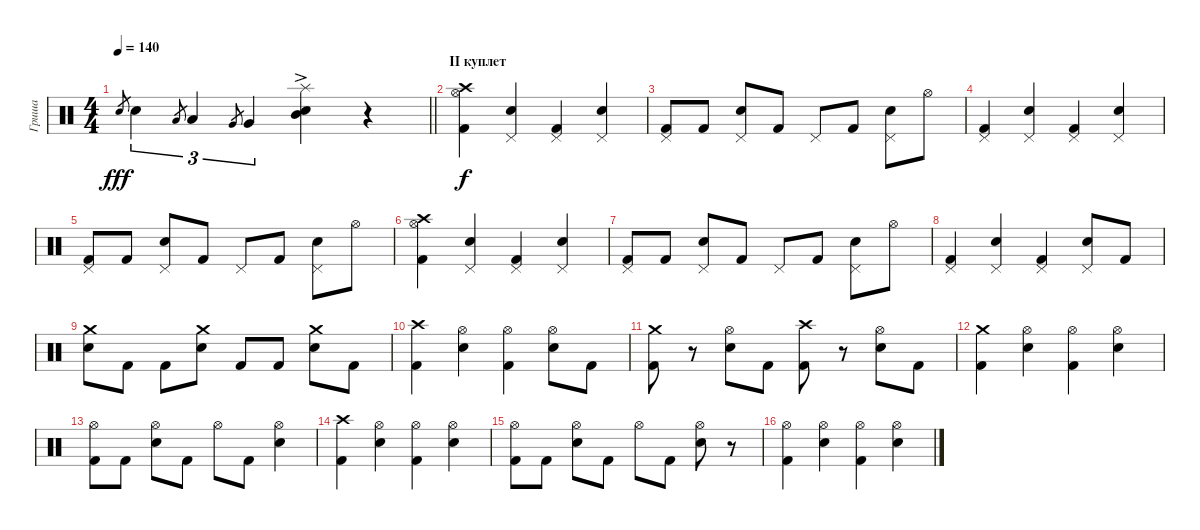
\track ("Гриша" "Гриша") {instrument percussion}
\staff {score}
\articulation defaults
\ts (4 4)
\tempo 140
\clef neutral
\barLineRight lightlight
\ks c "Electric Snare (hit)".8{gr dy fff} "Electric Snare (hit)".4{tu (3 2)} "Low Tom (hit)".8{gr} "Low Tom (hit)".4{tu (3 2)} "Very Low Tom (hit)".8{gr} "Very Low Tom (hit)".4{tu (3 2)}
("Electric Snare (hit)"{ac} "Splash (hit)" "Mid Tom (hit)").4 r.4 |
\section ("" "II куплет")
("Crash high (hit)" "Kick (hit) 2" "Hi-Hat (open)").4{dy f} ("Pedal Hi-Hat (hit)" "Electric Snare (hit)").4 ("Pedal Hi-Hat (hit)" "Kick (hit) 2").4 ("Pedal Hi-Hat (hit)" "Electric Snare (hit)").4 |
("Pedal Hi-Hat (hit)" "Kick (hit) 2").8 "Kick (hit) 2".8 ("Pedal Hi-Hat (hit)" "Electric Snare (hit)").8 "Kick (hit) 2".8 "Pedal Hi-Hat (hit)".8 "Kick (hit) 2".8 ("Pedal Hi-Hat (hit)" "Electric Snare (hit)").8 "Hi-Hat (open)".8 |
("Pedal Hi-Hat (hit)" "Kick (hit) 2").4 ("Pedal Hi-Hat (hit)" "Electric Snare (hit)").4 ("Pedal Hi-Hat (hit)" "Kick (hit) 2").4 ("Pedal Hi-Hat (hit)" "Electric Snare (hit)").4 |
("Pedal Hi-Hat (hit)" "Kick (hit) 2").8 "Kick (hit) 2".8 ("Pedal Hi-Hat (hit)" "Electric Snare (hit)").8 "Kick (hit) 2".8 "Pedal Hi-Hat (hit)".8 "Kick (hit) 2".8 ("Pedal Hi-Hat (hit)" "Electric Snare (hit)").8 "Hi-Hat (open)".8 |
("Crash high (hit)" "Kick (hit) 2" "Hi-Hat (open)").4 ("Pedal Hi-Hat (hit)" "Electric Snare (hit)").4 ("Pedal Hi-Hat (hit)" "Kick (hit) 2").4 ("Pedal Hi-Hat (hit)" "Electric Snare (hit)").4 |
("Pedal Hi-Hat (hit)" "Kick (hit) 2").8 "Kick (hit) 2".8 ("Pedal Hi-Hat (hit)" "Electric Snare (hit)").8 "Kick (hit) 2".8 "Pedal Hi-Hat (hit)".8 "Kick (hit) 2".8 ("Pedal Hi-Hat (hit)" "Electric Snare (hit)").8 "Hi-Hat (open)".8 |
("Pedal Hi-Hat (hit)" "Kick (hit) 2").4 ("Pedal Hi-Hat (hit)" "Electric Snare (hit)").4 ("Pedal Hi-Hat (hit)" "Kick (hit) 2").4 ("Pedal Hi-Hat (hit)" "Electric Snare (hit)").8 "Kick (hit) 2".8 |
("Crash medium (hit)" "Electric Snare (hit)").8 "Kick (hit) 2".8 "Kick (hit) 2".8 ("Crash medium (hit)" "Electric Snare (hit)").8 "Kick (hit) 2".8 "Kick (hit) 2".8 ("Crash medium (hit)" "Electric Snare (hit)").8 "Kick (hit) 2".8 |
("Crash high (hit)" "Kick (hit) 2").4 ("Hi-Hat (open)" "Electric Snare (hit)").4 ("Hi-Hat (open)" "Kick (hit) 2").4 ("Hi-Hat (open)" "Electric Snare (hit)").8 "Kick (hit) 2".8 |
("Crash medium (hit)" "Kick (hit) 2").8 r.8 ("Hi-Hat (open)" "Electric Snare (hit)").8 "Kick (hit) 2".8 ("Crash high (hit)" "Kick (hit) 2").8 r.8 ("Hi-Hat (open)" "Electric Snare (hit)").8 "Kick (hit) 2".8 |
("Crash medium (hit)" "Kick (hit) 2").4 ("Hi-Hat (open)" "Electric Snare (hit)").4 ("Hi-Hat (open)" "Kick (hit) 2").4 ("Hi-Hat (open)" "Electric Snare (hit)").4 |
("Hi-Hat (open)" "Kick (hit) 2").8 "Kick (hit) 2".8 ("Hi-Hat (open)" "Electric Snare (hit)").8 "Kick (hit) 2".8 "Hi-Hat (open)".8 "Kick (hit) 2".8 ("Hi-Hat (open)" "Electric Snare (hit)").4 |
("Crash high (hit)" "Kick (hit) 2").4 ("Hi-Hat (open)" "Electric Snare (hit)").4 ("Hi-Hat (open)" "Kick (hit) 2").4 ("Hi-Hat (open)" "Electric Snare (hit)").4 |
("Hi-Hat (open)" "Kick (hit) 2").8 "Kick (hit) 2".8 ("Hi-Hat (open)" "Electric Snare (hit)").8 "Kick (hit) 2".8 "Hi-Hat (open)".8 "Kick (hit) 2".8 ("Hi-Hat (open)" "Electric Snare (hit)").8 r.8 |
("Hi-Hat (open)" "Kick (hit) 2").4 ("Hi-Hat (open)" "Electric Snare (hit)").4 ("Hi-Hat (open)" "Kick (hit) 2").4 ("Hi-Hat (open)" "Electric Snare (hit)").4
